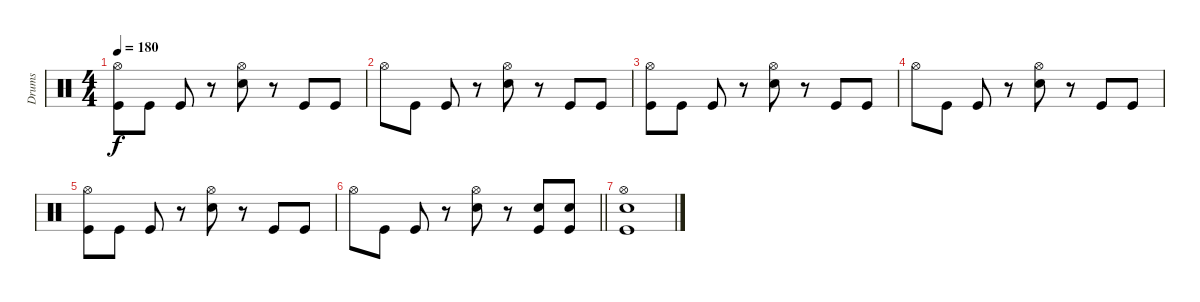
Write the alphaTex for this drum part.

\track ("Drums" "Drums") {instrument percussion}
\staff {score}
\articulation defaults
\ts (4 4)
\tempo 180
\clef neutral
\ks c
("Hi-Hat (open)" "Kick (hit)").8{dy f} "Kick (hit)".8 "Kick (hit)".8 r.8 ("Hi-Hat (open)" "Electric Snare (hit)").8 r.8 "Kick (hit)".8 "Kick (hit)".8 |
"Hi-Hat (open)".8 "Kick (hit)".8 "Kick (hit)".8 r.8 ("Hi-Hat (open)" "Electric Snare (hit)").8 r.8 "Kick (hit)".8 "Kick (hit)".8 |
("Hi-Hat (open)" "Kick (hit)").8 "Kick (hit)".8 "Kick (hit)".8 r.8 ("Hi-Hat (open)" "Electric Snare (hit)").8 r.8 "Kick (hit)".8 "Kick (hit)".8 |
"Hi-Hat (open)".8 "Kick (hit)".8 "Kick (hit)".8 r.8 ("Hi-Hat (open)" "Electric Snare (hit)").8 r.8 "Kick (hit)".8 "Kick (hit)".8 |
("Hi-Hat (open)" "Kick (hit)").8 "Kick (hit)".8 "Kick (hit)".8 r.8 ("Hi-Hat (open)" "Electric Snare (hit)").8 r.8 "Kick (hit)".8 "Kick (hit)".8 |
\barLineRight lightlight "Hi-Hat (open)".8 "Kick (hit)".8 "Kick (hit)".8
r.8 ("Hi-Hat (open)" "Electric Snare (hit)").8 r.8 ("Electric Snare (hit)" "Kick (hit)").8 ("Electric Snare (hit)" "Kick (hit)").8 |
("Hi-Hat (open)" "Electric Snare (hit)" "Kick (hit)").1
